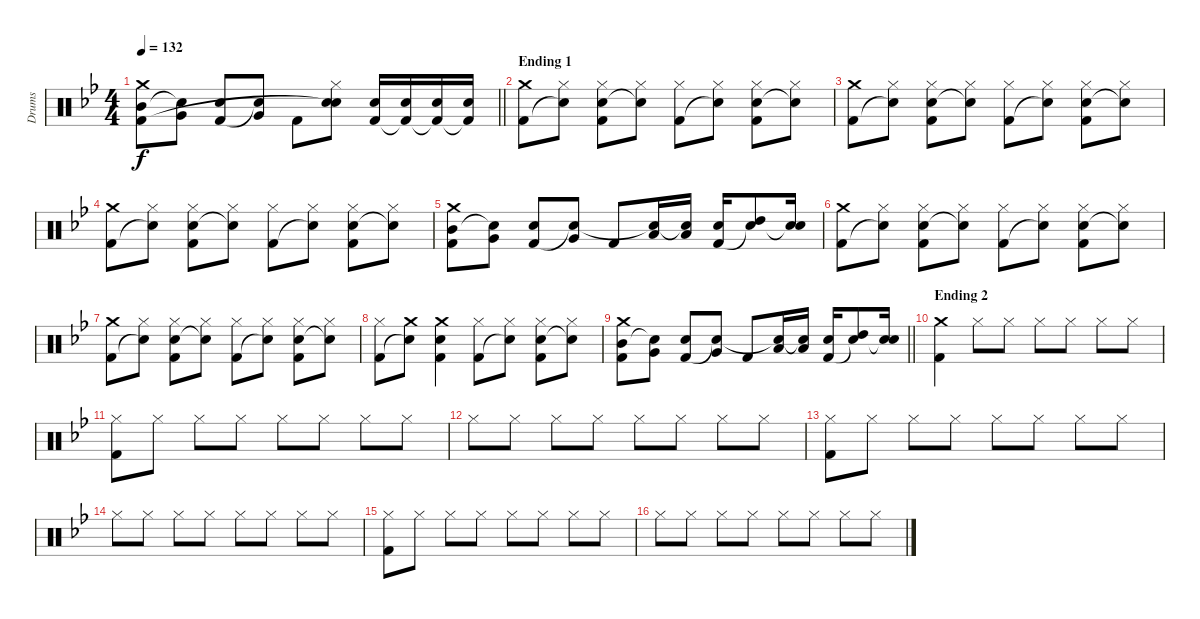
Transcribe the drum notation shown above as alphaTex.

\track ("Drums" "Drums") {instrument percussion}
\staff {score}
\articulation defaults
\ts (4 4)
\tempo 132
\clef neutral
\barLineRight lightlight
\ks bb
("Crash medium (hit)" "Mid Tom (hit)" "Kick (hit) 2").8{dy f} ("Very Low Tom (hit)" "Snare (hit)"{t}).8 ("Electric Snare (hit)" "Kick (hit) 2").8 ("Very Low Tom (hit)" "Snare (hit)"{t}).8 "Kick (hit) 2".8 ("Hi-Hat (closed)" "Electric Snare (hit)" "Snare (hit)"{t}).8 ("Electric Snare (hit)" "Kick (hit) 2").16 ("Electric Snare (hit)" "Kick (hit) 2"{t}).16 ("Electric Snare (hit)" "Kick (hit) 2"{t}).16 ("Electric Snare (hit)" "Kick (hit) 2"{t}).16 |
\section ("" "Ending 1")
("Crash medium (hit)" "Kick (hit) 2").8 ("Hi-Hat (closed)" "Snare (hit)"{t}).8 ("Hi-Hat (closed)" "Electric Snare (hit)" "Kick (hit) 2").8 ("Hi-Hat (closed)" "Snare (hit)"{t}).8 ("Hi-Hat (closed)" "Kick (hit) 2").8 ("Hi-Hat (closed)" "Snare (hit)"{t}).8 ("Hi-Hat (closed)" "Electric Snare (hit)" "Kick (hit) 2").8 ("Hi-Hat (closed)" "Snare (hit)"{t}).8 |
("Crash medium (hit)" "Kick (hit) 2").8 ("Hi-Hat (closed)" "Snare (hit)"{t}).8 ("Hi-Hat (closed)" "Electric Snare (hit)" "Kick (hit) 2").8 ("Hi-Hat (closed)" "Snare (hit)"{t}).8 ("Hi-Hat (closed)" "Kick (hit) 2").8 ("Hi-Hat (closed)" "Snare (hit)"{t}).8 ("Hi-Hat (closed)" "Electric Snare (hit)" "Kick (hit) 2").8 ("Hi-Hat (closed)" "Snare (hit)"{t}).8 |
("Crash medium (hit)" "Kick (hit) 2").8 ("Hi-Hat (closed)" "Snare (hit)"{t}).8 ("Hi-Hat (closed)" "Electric Snare (hit)" "Kick (hit) 2").8 ("Hi-Hat (closed)" "Snare (hit)"{t}).8 ("Hi-Hat (closed)" "Kick (hit) 2").8 ("Hi-Hat (closed)" "Snare (hit)"{t}).8 ("Hi-Hat (closed)" "Electric Snare (hit)" "Kick (hit) 2").8 ("Hi-Hat (closed)" "Snare (hit)"{t}).8 |
("Crash medium (hit)" "Mid Tom (hit)" "Kick (hit) 2").8 ("Very Low Tom (hit)" "Snare (hit)"{t}).8 ("Electric Snare (hit)" "Kick (hit) 2").8 ("Very Low Tom (hit)" "Snare (hit)"{t}).8 "Kick (hit) 2".8 ("Low Floor Tom (hit)" "Snare (hit)"{t}).16 ("Low Floor Tom (hit)" "Snare (hit)"{t}).16 ("Electric Snare (hit)" "Kick (hit) 2").16 ("High Tom (hit)" "Snare (hit)"{t}).8 ("Electric Snare (hit)" "Snare (hit)"{t}).16 |
("Crash medium (hit)" "Kick (hit) 2").8 ("Hi-Hat (closed)" "Snare (hit)"{t}).8 ("Hi-Hat (closed)" "Electric Snare (hit)" "Kick (hit) 2").8 ("Hi-Hat (closed)" "Snare (hit)"{t}).8 ("Hi-Hat (closed)" "Kick (hit) 2").8 ("Hi-Hat (closed)" "Snare (hit)"{t}).8 ("Hi-Hat (closed)" "Electric Snare (hit)" "Kick (hit) 2").8 ("Hi-Hat (closed)" "Snare (hit)"{t}).8 |
("Crash medium (hit)" "Kick (hit) 2").8 ("Hi-Hat (closed)" "Snare (hit)"{t}).8 ("Hi-Hat (closed)" "Electric Snare (hit)" "Kick (hit) 2").8 ("Hi-Hat (closed)" "Snare (hit)"{t}).8 ("Hi-Hat (closed)" "Kick (hit) 2").8 ("Hi-Hat (closed)" "Snare (hit)"{t}).8 ("Hi-Hat (closed)" "Electric Snare (hit)" "Kick (hit) 2").8 ("Hi-Hat (closed)" "Snare (hit)"{t}).8 |
("Hi-Hat (closed)" "Kick (hit) 2").8 ("Crash medium (hit)" "Snare (hit)"{t}).8 ("Crash medium (hit)" "Electric Snare (hit)" "Kick (hit) 2").4 ("Hi-Hat (closed)" "Kick (hit) 2").8 ("Hi-Hat (closed)" "Snare (hit)"{t}).8 ("Hi-Hat (closed)" "Electric Snare (hit)" "Kick (hit) 2").8 ("Hi-Hat (closed)" "Snare (hit)"{t}).8 |
\barLineRight lightlight
("Crash medium (hit)" "Mid Tom (hit)" "Kick (hit) 2").8 ("Very Low Tom (hit)" "Snare (hit)"{t}).8 ("Electric Snare (hit)" "Kick (hit) 2").8 ("Very Low Tom (hit)" "Snare (hit)"{t}).8 "Kick (hit) 2".8 ("Low Floor Tom (hit)" "Snare (hit)"{t}).16 ("Low Floor Tom (hit)" "Snare (hit)"{t}).16 ("Electric Snare (hit)" "Kick (hit) 2").16 ("High Tom (hit)" "Snare (hit)"{t}).8 ("Electric Snare (hit)" "Snare (hit)"{t}).16 |
\section ("" "Ending 2")
("Crash medium (hit)" "Kick (hit) 2").4 "Hi-Hat (closed)".8 "Hi-Hat (closed)".8 "Hi-Hat (closed)".8 "Hi-Hat (closed)".8 "Hi-Hat (closed)".8 "Hi-Hat (closed)".8 |
("Hi-Hat (closed)" "Kick (hit) 2").8 "Hi-Hat (closed)".8 "Hi-Hat (closed)".8 "Hi-Hat (closed)".8 "Hi-Hat (closed)".8 "Hi-Hat (closed)".8 "Hi-Hat (closed)".8 "Hi-Hat (closed)".8 |
"Hi-Hat (closed)".8 "Hi-Hat (closed)".8 "Hi-Hat (closed)".8 "Hi-Hat (closed)".8 "Hi-Hat (closed)".8 "Hi-Hat (closed)".8 "Hi-Hat (closed)".8 "Hi-Hat (closed)".8 |
("Hi-Hat (closed)" "Kick (hit) 2").8 "Hi-Hat (closed)".8 "Hi-Hat (closed)".8 "Hi-Hat (closed)".8 "Hi-Hat (closed)".8 "Hi-Hat (closed)".8 "Hi-Hat (closed)".8 "Hi-Hat (closed)".8 |
"Hi-Hat (closed)".8 "Hi-Hat (closed)".8 "Hi-Hat (closed)".8 "Hi-Hat (closed)".8 "Hi-Hat (closed)".8 "Hi-Hat (closed)".8 "Hi-Hat (closed)".8 "Hi-Hat (closed)".8 |
("Hi-Hat (closed)" "Kick (hit) 2").8 "Hi-Hat (closed)".8 "Hi-Hat (closed)".8 "Hi-Hat (closed)".8 "Hi-Hat (closed)".8 "Hi-Hat (closed)".8 "Hi-Hat (closed)".8 "Hi-Hat (closed)".8 |
"Hi-Hat (closed)".8 "Hi-Hat (closed)".8 "Hi-Hat (closed)".8 "Hi-Hat (closed)".8 "Hi-Hat (closed)".8 "Hi-Hat (closed)".8 "Hi-Hat (closed)".8 "Hi-Hat (closed)".8
